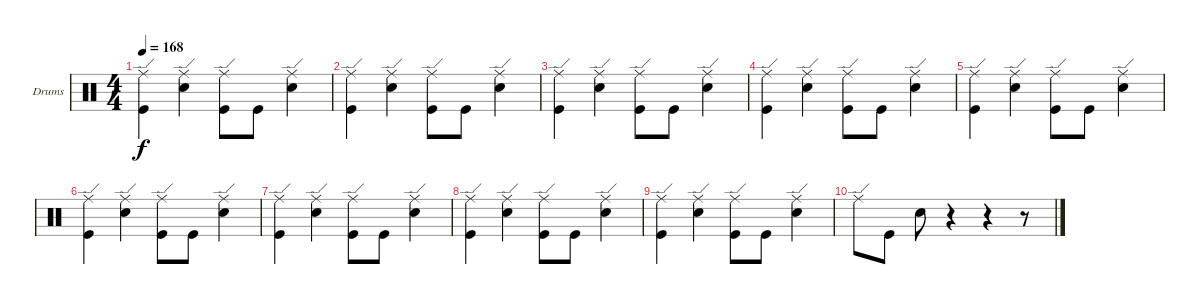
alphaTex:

\bracketExtendMode groupsimilarinstruments
\firstSystemTrackNameOrientation horizontal
\otherSystemsTrackNameOrientation horizontal
\track ("Drumkit" "Drums") {instrument percussion}
\staff {score}
\articulation defaults
\ts (4 4)
\tempo 168
\clef neutral
\ks c
("Kick (hit)" "Ride (edge)").4{dy f} ("Snare (hit) 2" "Ride (edge)").4 ("Kick (hit)" "Ride (edge)").8 "Kick (hit)".8 ("Snare (hit) 2" "Ride (edge)").4 |
("Kick (hit)" "Ride (edge)").4 ("Snare (hit) 2" "Ride (edge)").4 ("Kick (hit)" "Ride (edge)").8 "Kick (hit)".8 ("Snare (hit) 2" "Ride (edge)").4 |
("Kick (hit)" "Ride (edge)").4 ("Snare (hit) 2" "Ride (edge)").4 ("Kick (hit)" "Ride (edge)").8 "Kick (hit)".8 ("Snare (hit) 2" "Ride (edge)").4 |
("Kick (hit)" "Ride (edge)").4 ("Snare (hit) 2" "Ride (edge)").4 ("Kick (hit)" "Ride (edge)").8 "Kick (hit)".8 ("Snare (hit) 2" "Ride (edge)").4 |
("Kick (hit)" "Ride (edge)").4 ("Snare (hit) 2" "Ride (edge)").4 ("Kick (hit)" "Ride (edge)").8 "Kick (hit)".8 ("Snare (hit) 2" "Ride (edge)").4 |
("Kick (hit)" "Ride (edge)").4 ("Snare (hit) 2" "Ride (edge)").4 ("Kick (hit)" "Ride (edge)").8 "Kick (hit)".8 ("Snare (hit) 2" "Ride (edge)").4 |
("Kick (hit)" "Ride (edge)").4 ("Snare (hit) 2" "Ride (edge)").4 ("Kick (hit)" "Ride (edge)").8 "Kick (hit)".8 ("Snare (hit) 2" "Ride (edge)").4 |
("Kick (hit)" "Ride (edge)").4 ("Snare (hit) 2" "Ride (edge)").4 ("Kick (hit)" "Ride (edge)").8 "Kick (hit)".8 ("Snare (hit) 2" "Ride (edge)").4 |
("Kick (hit)" "Ride (edge)").4 ("Snare (hit) 2" "Ride (edge)").4 ("Kick (hit)" "Ride (edge)").8 "Kick (hit)".8 ("Snare (hit) 2" "Ride (edge)").4 |
"Ride (edge)".8 "Kick (hit)".8 "Snare (hit) 2".8 r.4 r.4 r.8
